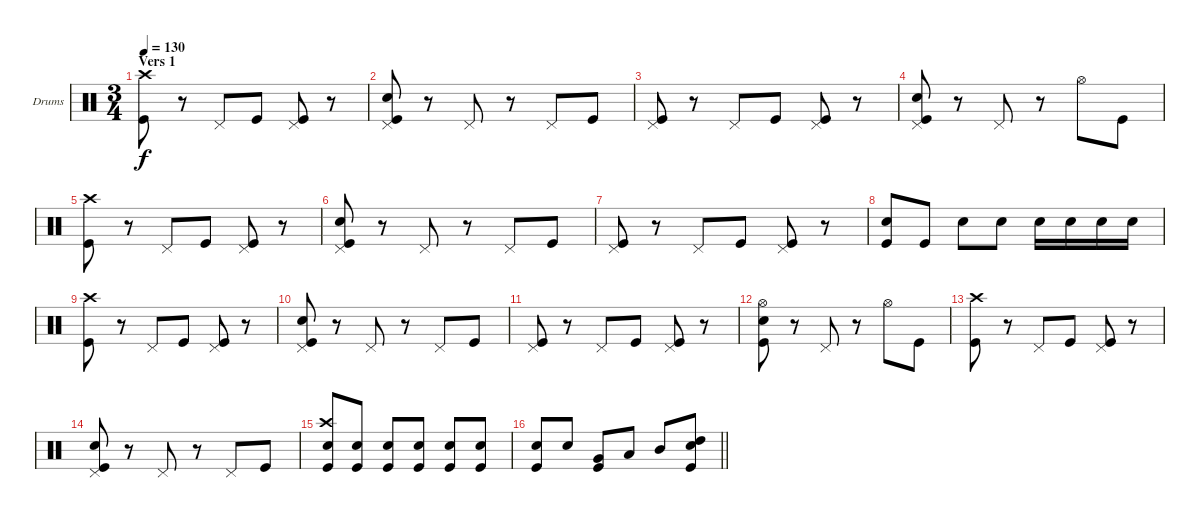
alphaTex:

\bracketExtendMode groupsimilarinstruments
\firstSystemTrackNameOrientation horizontal
\otherSystemsTrackNameOrientation horizontal
\track ("Drumkit" "Drums") {instrument percussion}
\staff {score}
\articulation defaults
\ts (3 4)
\section ("" "Vers 1")
\tempo 130
\clef neutral
\ks c
("Kick (hit)" "Crash high (hit)").8{dy f} r.8 "Pedal Hi-Hat (hit)".8 "Kick (hit)".8 ("Kick (hit)" "Pedal Hi-Hat (hit)").8 r.8 |
("Kick (hit)" "Snare (hit) 2" "Pedal Hi-Hat (hit)").8 r.8 "Pedal Hi-Hat (hit)".8 r.8 "Pedal Hi-Hat (hit)".8 "Kick (hit)".8 |
("Kick (hit)" "Pedal Hi-Hat (hit)").8 r.8 "Pedal Hi-Hat (hit)".8 "Kick (hit)".8 ("Kick (hit)" "Pedal Hi-Hat (hit)").8 r.8 |
("Kick (hit)" "Snare (hit) 2" "Pedal Hi-Hat (hit)").8 r.8 "Pedal Hi-Hat (hit)".8 r.8 "Hi-Hat (open)".8 "Kick (hit)".8 |
("Kick (hit)" "Crash high (hit)").8 r.8 "Pedal Hi-Hat (hit)".8 "Kick (hit)".8 ("Kick (hit)" "Pedal Hi-Hat (hit)").8 r.8 |
("Kick (hit)" "Snare (hit) 2" "Pedal Hi-Hat (hit)").8 r.8 "Pedal Hi-Hat (hit)".8 r.8 "Pedal Hi-Hat (hit)".8 "Kick (hit)".8 |
("Kick (hit)" "Pedal Hi-Hat (hit)").8 r.8 "Pedal Hi-Hat (hit)".8 "Kick (hit)".8 ("Kick (hit)" "Pedal Hi-Hat (hit)").8 r.8 |
("Kick (hit)" "Snare (hit) 2").8 "Kick (hit)".8 "Snare (hit) 2".8 "Snare (hit) 2".8 "Snare (hit) 2".16 "Snare (hit) 2".16 "Snare (hit) 2".16 "Snare (hit) 2".16 |
("Kick (hit)" "Crash high (hit)").8 r.8 "Pedal Hi-Hat (hit)".8 "Kick (hit)".8 ("Kick (hit)" "Pedal Hi-Hat (hit)").8 r.8 |
("Kick (hit)" "Snare (hit) 2" "Pedal Hi-Hat (hit)").8 r.8 "Pedal Hi-Hat (hit)".8 r.8 "Pedal Hi-Hat (hit)".8 "Kick (hit)".8 |
("Kick (hit)" "Pedal Hi-Hat (hit)").8 r.8 "Pedal Hi-Hat (hit)".8 "Kick (hit)".8 ("Kick (hit)" "Pedal Hi-Hat (hit)").8 r.8 |
("Kick (hit)" "Snare (hit) 2" "Hi-Hat (open)").8 r.8 "Pedal Hi-Hat (hit)".8 r.8 "Hi-Hat (open)".8 "Kick (hit)".8 |
("Kick (hit)" "Crash high (hit)").8 r.8 "Pedal Hi-Hat (hit)".8 "Kick (hit)".8 ("Kick (hit)" "Pedal Hi-Hat (hit)").8 r.8 |
("Kick (hit)" "Snare (hit) 2" "Pedal Hi-Hat (hit)").8 r.8 "Pedal Hi-Hat (hit)".8 r.8 "Pedal Hi-Hat (hit)".8 "Kick (hit)".8 |
("Kick (hit)" "Snare (hit) 2" "Crash high (hit)").8 ("Kick (hit)" "Snare (hit) 2").8 ("Kick (hit)" "Snare (hit) 2").8 ("Kick (hit)" "Snare (hit) 2").8 ("Kick (hit)" "Snare (hit) 2").8 ("Kick (hit)" "Snare (hit) 2").8 |
\barLineRight lightlight
("Kick (hit)" "Snare (hit) 2").8 "Snare (hit) 2".8 ("Kick (hit)" "Very Low Tom (hit)").8 "Low Tom (hit)".8 "Mid Tom (hit)".8 ("Kick (hit)" "Snare (hit) 2" "High Tom (hit)").8
